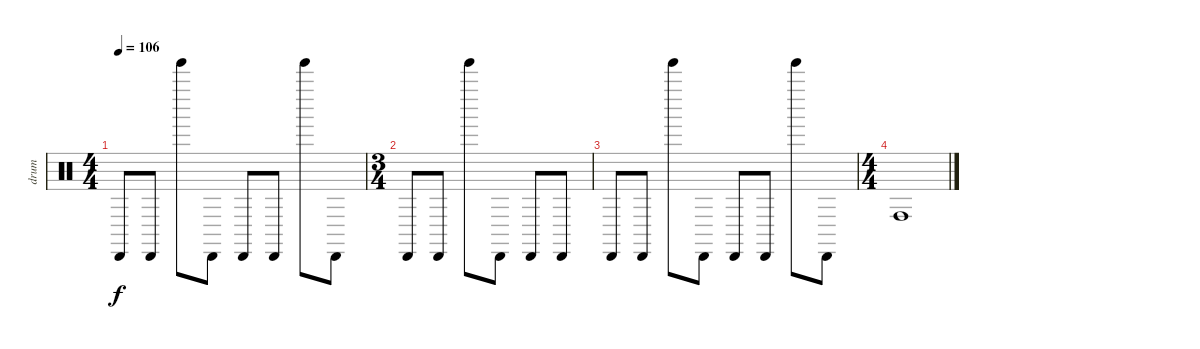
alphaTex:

\track ("drum" "drum") {instrument percussion}
\staff {score}
\articulation defaults
\ts (4 4)
\tempo 106
\clef neutral
\ks c "Cabasa (hit)".8{dy f} "Cabasa (hit)".8 "Tinkle Bell (hit)".8 "Cabasa (hit)".8 "Cabasa (hit)".8 "Cabasa (hit)".8 "Tinkle Bell (hit)".8 "Cabasa (hit)".8
|
\ts (3 4)
"Cabasa (hit)".8 "Cabasa (hit)".8 "Tinkle Bell (hit)".8 "Cabasa (hit)".8 "Cabasa (hit)".8 "Cabasa (hit)".8 |
"Cabasa (hit)".8 "Cabasa (hit)".8 "Tinkle Bell (hit)".8 "Cabasa (hit)".8 "Cabasa (hit)".8 "Cabasa (hit)".8 "Tinkle Bell (hit)".8 "Cabasa (hit)".8 |
\ts (4 4)
"Conga high (hit)".1
